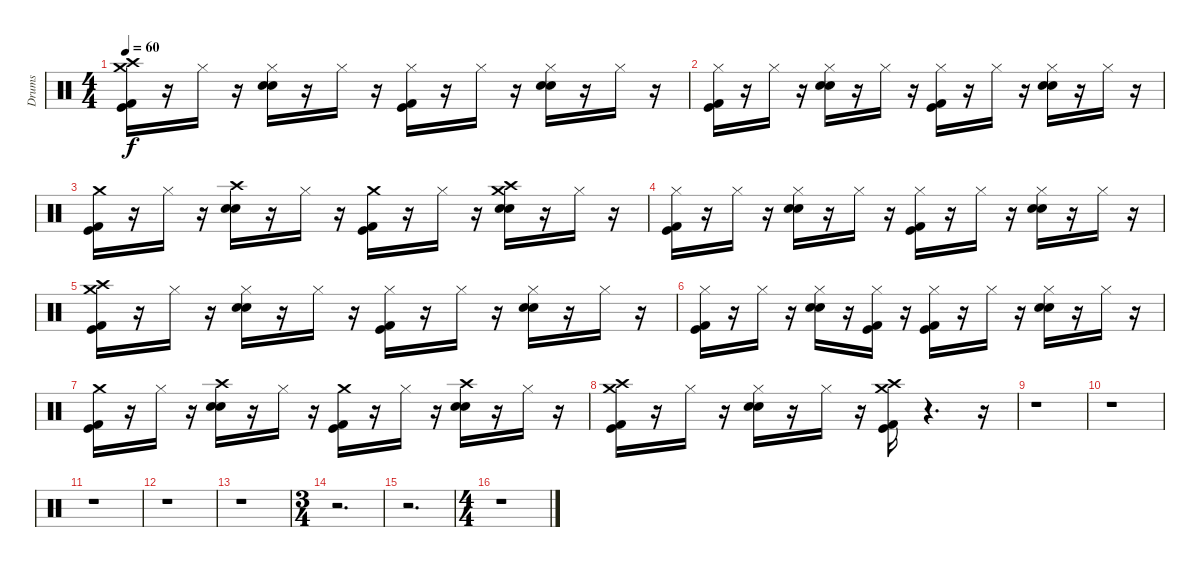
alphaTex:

\track ("Drums" "Drums") {instrument percussion}
\staff {score}
\articulation defaults
\ts (4 4)
\tempo 60
\clef neutral
\ks c
("Crash high (hit)" "Crash medium (hit)" "Kick (hit) 2" "Kick (hit)").16{dy f} r.16 "Hi-Hat (closed)".16 r.16 ("Hi-Hat (closed)" "Electric Snare (hit)" "Snare (hit) 2").16 r.16 "Hi-Hat (closed)".16 r.16 ("Hi-Hat (closed)" "Kick (hit) 2" "Kick (hit)").16 r.16 "Hi-Hat (closed)".16 r.16 ("Hi-Hat (closed)" "Electric Snare (hit)" "Snare (hit) 2").16 r.16 "Hi-Hat (closed)".16 r.16 |
("Hi-Hat (closed)" "Kick (hit) 2" "Kick (hit)").16 r.16 "Hi-Hat (closed)".16 r.16 ("Hi-Hat (closed)" "Electric Snare (hit)" "Snare (hit) 2").16 r.16 "Hi-Hat (closed)".16 r.16 ("Hi-Hat (closed)" "Kick (hit) 2" "Kick (hit)").16 r.16 "Hi-Hat (closed)".16 r.16 ("Hi-Hat (closed)" "Electric Snare (hit)" "Snare (hit) 2").16 r.16 "Hi-Hat (closed)".16 r.16 |
("Crash medium (hit)" "Kick (hit) 2" "Kick (hit)").16 r.16 "Hi-Hat (closed)".16 r.16 ("Crash high (hit)" "Electric Snare (hit)" "Snare (hit) 2").16 r.16 "Hi-Hat (closed)".16 r.16 ("Crash medium (hit)" "Kick (hit)" "Kick (hit) 2").16 r.16 "Hi-Hat (closed)".16 r.16 ("Crash medium (hit)" "Crash high (hit)" "Electric Snare (hit)" "Snare (hit) 2").16 r.16 "Hi-Hat (closed)".16 r.16 |
("Hi-Hat (closed)" "Kick (hit) 2" "Kick (hit)").16 r.16 "Hi-Hat (closed)".16 r.16 ("Hi-Hat (closed)" "Electric Snare (hit)" "Snare (hit) 2").16 r.16 "Hi-Hat (closed)".16 r.16 ("Hi-Hat (closed)" "Kick (hit) 2" "Kick (hit)").16 r.16 "Hi-Hat (closed)".16 r.16 ("Hi-Hat (closed)" "Electric Snare (hit)" "Snare (hit) 2").16 r.16 "Hi-Hat (closed)".16 r.16 |
("Crash medium (hit)" "Crash high (hit)" "Kick (hit) 2" "Kick (hit)").16 r.16 "Hi-Hat (closed)".16 r.16 ("Hi-Hat (closed)" "Electric Snare (hit)" "Snare (hit) 2").16 r.16 "Hi-Hat (closed)".16 r.16 ("Hi-Hat (closed)" "Kick (hit) 2" "Kick (hit)").16 r.16 "Hi-Hat (closed)".16 r.16 ("Hi-Hat (closed)" "Electric Snare (hit)" "Snare (hit) 2").16 r.16 "Hi-Hat (closed)".16 r.16 |
("Hi-Hat (closed)" "Kick (hit) 2" "Kick (hit)").16 r.16 "Hi-Hat (closed)".16 r.16 ("Hi-Hat (closed)" "Electric Snare (hit)" "Snare (hit) 2").16 r.16 ("Kick (hit)" "Kick (hit) 2" "Hi-Hat (closed)").16 r.16 ("Hi-Hat (closed)" "Kick (hit) 2" "Kick (hit)").16 r.16 "Hi-Hat (closed)".16 r.16 ("Hi-Hat (closed)" "Electric Snare (hit)" "Snare (hit) 2").16 r.16 "Hi-Hat (closed)".16 r.16 |
("Crash medium (hit)" "Kick (hit) 2" "Kick (hit)").16 r.16 "Hi-Hat (closed)".16 r.16 ("Crash high (hit)" "Electric Snare (hit)" "Snare (hit) 2").16 r.16 "Hi-Hat (closed)".16 r.16 ("Crash medium (hit)" "Kick (hit) 2" "Kick (hit)").16 r.16 "Hi-Hat (closed)".16 r.16 ("Electric Snare (hit)" "Crash high (hit)" "Snare (hit) 2").16 r.16 "Hi-Hat (closed)".16 r.16 |
("Crash high (hit)" "Crash medium (hit)" "Kick (hit) 2" "Kick (hit)").16 r.16 "Hi-Hat (closed)".16 r.16 ("Hi-Hat (closed)" "Electric Snare (hit)" "Snare (hit) 2").16 r.16 "Hi-Hat (closed)".16 r.16 ("Crash medium (hit)" "Crash high (hit)" "Kick (hit) 2" "Kick (hit)").16 r.4{d} r.16 |
r.1 |
r.1 |
r.1 |
r.1 |
r.1 |
\ts (3 4)
r.2{d} |
r.2{d} |
\ts (4 4)
r.1
